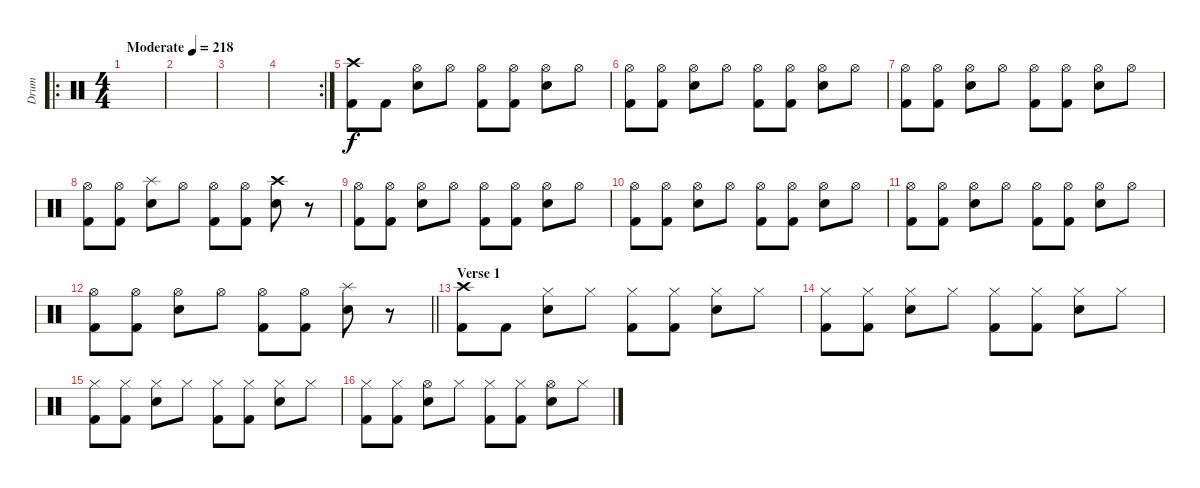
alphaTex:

\track ("Drum" "Drum") {instrument percussion}
\staff {score}
\articulation defaults
\ro
\ts (4 4)
\tempo (218 "Moderate")
\clef neutral
\ks c
|
|
|
\rc 2
|
("Kick (hit) 2" "Crash high (hit)").8 "Kick (hit) 2".8 ("Snare (hit) 2" "Hi-Hat (open)").8 "Hi-Hat (open)".8 ("Kick (hit) 2" "Hi-Hat (open)").8 ("Kick (hit) 2" "Hi-Hat (open)").8 ("Snare (hit) 2" "Hi-Hat (open)").8 "Hi-Hat (open)".8 |
("Kick (hit) 2" "Hi-Hat (open)").8 ("Kick (hit) 2" "Hi-Hat (open)").8 ("Snare (hit) 2" "Hi-Hat (open)").8 "Hi-Hat (open)".8 ("Kick (hit) 2" "Hi-Hat (open)").8 ("Kick (hit) 2" "Hi-Hat (open)").8 ("Snare (hit) 2" "Hi-Hat (open)").8 "Hi-Hat (open)".8 |
("Kick (hit) 2" "Hi-Hat (open)").8 ("Kick (hit) 2" "Hi-Hat (open)").8 ("Snare (hit) 2" "Hi-Hat (open)").8 "Hi-Hat (open)".8 ("Kick (hit) 2" "Hi-Hat (open)").8 ("Kick (hit) 2" "Hi-Hat (open)").8 ("Snare (hit) 2" "Hi-Hat (open)").8 "Hi-Hat (open)".8 |
("Kick (hit) 2" "Hi-Hat (open)").8 ("Kick (hit) 2" "Hi-Hat (open)").8 ("Snare (hit) 2" "Splash (hit)").8 "Hi-Hat (open)".8 ("Kick (hit) 2" "Hi-Hat (open)").8 ("Kick (hit) 2" "Hi-Hat (open)").8 ("Snare (hit) 2" "Crash high (hit)").8 r.8 |
("Kick (hit) 2" "Hi-Hat (open)").8 ("Kick (hit) 2" "Hi-Hat (open)").8 ("Snare (hit) 2" "Hi-Hat (open)").8 "Hi-Hat (open)".8 ("Kick (hit) 2" "Hi-Hat (open)").8 ("Kick (hit) 2" "Hi-Hat (open)").8 ("Snare (hit) 2" "Hi-Hat (open)").8 "Hi-Hat (open)".8 |
("Kick (hit) 2" "Hi-Hat (open)").8 ("Kick (hit) 2" "Hi-Hat (open)").8 ("Snare (hit) 2" "Hi-Hat (open)").8 "Hi-Hat (open)".8 ("Kick (hit) 2" "Hi-Hat (open)").8 ("Kick (hit) 2" "Hi-Hat (open)").8 ("Snare (hit) 2" "Hi-Hat (open)").8 "Hi-Hat (open)".8 |
("Kick (hit) 2" "Hi-Hat (open)").8 ("Kick (hit) 2" "Hi-Hat (open)").8 ("Snare (hit) 2" "Hi-Hat (open)").8 "Hi-Hat (open)".8 ("Kick (hit) 2" "Hi-Hat (open)").8 ("Kick (hit) 2" "Hi-Hat (open)").8 ("Snare (hit) 2" "Hi-Hat (open)").8 "Hi-Hat (open)".8 |
\barLineRight lightlight
("Kick (hit) 2" "Hi-Hat (open)").8 ("Kick (hit) 2" "Hi-Hat (open)").8 ("Snare (hit) 2" "Hi-Hat (open)").8 "Hi-Hat (open)".8 ("Kick (hit) 2" "Hi-Hat (open)").8 ("Kick (hit) 2" "Hi-Hat (open)").8 ("Snare (hit) 2" "Splash (hit)").8 r.8 |
\section ("" "Verse 1")
("Kick (hit) 2" "Crash high (hit)").8 "Kick (hit) 2".8 ("Snare (hit) 2" "Hi-Hat (closed)").8 "Hi-Hat (closed)".8 ("Kick (hit) 2" "Hi-Hat (closed)").8 ("Kick (hit) 2" "Hi-Hat (closed)").8 ("Snare (hit) 2" "Hi-Hat (closed)").8 "Hi-Hat (closed)".8 |
("Kick (hit) 2" "Hi-Hat (closed)").8 ("Kick (hit) 2" "Hi-Hat (closed)").8 ("Snare (hit) 2" "Hi-Hat (closed)").8 "Hi-Hat (closed)".8 ("Kick (hit) 2" "Hi-Hat (closed)").8 ("Kick (hit) 2" "Hi-Hat (closed)").8 ("Snare (hit) 2" "Hi-Hat (closed)").8 "Hi-Hat (closed)".8 |
("Kick (hit) 2" "Hi-Hat (closed)").8 ("Kick (hit) 2" "Hi-Hat (closed)").8 ("Snare (hit) 2" "Hi-Hat (closed)").8 "Hi-Hat (closed)".8 ("Kick (hit) 2" "Hi-Hat (closed)").8 ("Kick (hit) 2" "Hi-Hat (closed)").8 ("Snare (hit) 2" "Hi-Hat (closed)").8 "Hi-Hat (closed)".8 |
("Kick (hit) 2" "Hi-Hat (closed)").8 ("Kick (hit) 2" "Hi-Hat (closed)").8 ("Snare (hit) 2" "Hi-Hat (open)").8 "Hi-Hat (closed)".8 ("Kick (hit) 2" "Hi-Hat (closed)").8 ("Kick (hit) 2" "Hi-Hat (closed)").8 ("Snare (hit) 2" "Hi-Hat (open)").8 "Hi-Hat (closed)".8
